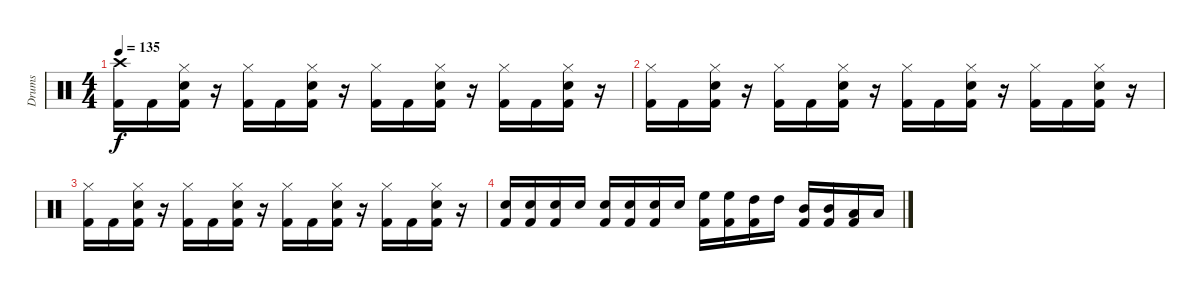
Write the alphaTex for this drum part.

\track ("Drums" "Drums") {instrument percussion}
\staff {score}
\articulation defaults
\ts (4 4)
\tempo 135
\clef neutral
\ks c
("Crash high (hit)" "Kick (hit) 2").16{dy f} "Kick (hit) 2".16 ("Hi-Hat (closed)" "Snare (hit) 2" "Kick (hit) 2").16 r.16 ("Hi-Hat (closed)" "Kick (hit) 2").16 "Kick (hit) 2".16 ("Hi-Hat (closed)" "Snare (hit) 2" "Kick (hit) 2").16 r.16 ("Hi-Hat (closed)" "Kick (hit) 2").16 "Kick (hit) 2".16 ("Hi-Hat (closed)" "Snare (hit) 2" "Kick (hit) 2").16 r.16 ("Hi-Hat (closed)" "Kick (hit) 2").16 "Kick (hit) 2".16 ("Hi-Hat (closed)" "Snare (hit) 2" "Kick (hit) 2").16 r.16 |
("Hi-Hat (closed)" "Kick (hit) 2").16 "Kick (hit) 2".16 ("Hi-Hat (closed)" "Snare (hit) 2" "Kick (hit) 2").16 r.16 ("Hi-Hat (closed)" "Kick (hit) 2").16 "Kick (hit) 2".16 ("Hi-Hat (closed)" "Snare (hit) 2" "Kick (hit) 2").16 r.16 ("Hi-Hat (closed)" "Kick (hit) 2").16 "Kick (hit) 2".16 ("Hi-Hat (closed)" "Snare (hit) 2" "Kick (hit) 2").16 r.16 ("Hi-Hat (closed)" "Kick (hit) 2").16 "Kick (hit) 2".16 ("Hi-Hat (closed)" "Snare (hit) 2" "Kick (hit) 2").16 r.16 |
("Hi-Hat (closed)" "Kick (hit) 2").16 "Kick (hit) 2".16 ("Hi-Hat (closed)" "Snare (hit) 2" "Kick (hit) 2").16 r.16 ("Hi-Hat (closed)" "Kick (hit) 2").16 "Kick (hit) 2".16 ("Hi-Hat (closed)" "Snare (hit) 2" "Kick (hit) 2").16 r.16 ("Hi-Hat (closed)" "Kick (hit) 2").16 "Kick (hit) 2".16 ("Hi-Hat (closed)" "Snare (hit) 2" "Kick (hit) 2").16 r.16 ("Hi-Hat (closed)" "Kick (hit) 2").16 "Kick (hit) 2".16 ("Hi-Hat (closed)" "Snare (hit) 2" "Kick (hit) 2").16 r.16 |
("Snare (hit) 2" "Kick (hit) 2").16 ("Snare (hit) 2" "Kick (hit) 2").16 ("Snare (hit) 2" "Kick (hit) 2").16 "Snare (hit) 2".16 ("Snare (hit) 2" "Kick (hit) 2").16 ("Snare (hit) 2" "Kick (hit) 2").16 ("Snare (hit) 2" "Kick (hit) 2").16 "Snare (hit) 2".16 ("High Floor Tom (hit)" "Kick (hit) 2").16 ("High Floor Tom (hit)" "Kick (hit) 2").16 ("High Tom (hit)" "Kick (hit) 2").16 "High Tom (hit)".16 ("Mid Tom (hit)" "Kick (hit) 2").16 ("Mid Tom (hit)" "Kick (hit) 2").16 ("Low Floor Tom (hit)" "Kick (hit) 2").16 "Low Floor Tom (hit)".16
